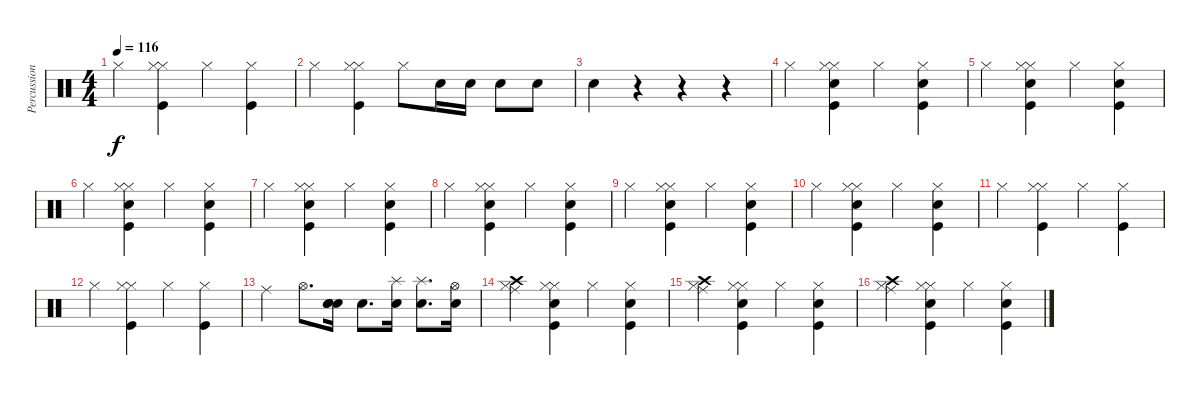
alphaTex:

\track ("Percussion ( Densmore)" "Percussion") {instrument percussion}
\staff {score}
\articulation defaults
\ts (4 4)
\tempo 116
\clef neutral
\ks c "Hi-Hat (closed)".4{dy f}
("Hi-Hat (closed)" "Hi-Hat (closed)" "Kick (hit)").4 "Hi-Hat (closed)".4 ("Hi-Hat (closed)" "Kick (hit)").4 |
"Hi-Hat (closed)".4 ("Hi-Hat (closed)" "Hi-Hat (closed)" "Kick (hit)").4 "Hi-Hat (closed)".8 "Snare (hit) 2".16 "Snare (hit) 2".16 "Snare (hit) 2".8 "Snare (hit) 2".8 |
"Snare (hit) 2".4 r.4 r.4 r.4 |
"Hi-Hat (closed)".4 ("Hi-Hat (closed)" "Hi-Hat (closed)" "Kick (hit)" "Snare (hit) 2").4 "Hi-Hat (closed)".4 ("Hi-Hat (closed)" "Snare (hit) 2" "Kick (hit)").4 |
"Hi-Hat (closed)".4 ("Hi-Hat (closed)" "Hi-Hat (closed)" "Kick (hit)" "Snare (hit) 2").4 "Hi-Hat (closed)".4 ("Hi-Hat (closed)" "Snare (hit) 2" "Kick (hit)").4 |
"Hi-Hat (closed)".4 ("Hi-Hat (closed)" "Hi-Hat (closed)" "Kick (hit)" "Snare (hit) 2").4 "Hi-Hat (closed)".4 ("Hi-Hat (closed)" "Snare (hit) 2" "Kick (hit)").4 |
"Hi-Hat (closed)".4 ("Hi-Hat (closed)" "Hi-Hat (closed)" "Kick (hit)" "Snare (hit) 2").4 "Hi-Hat (closed)".4 ("Hi-Hat (closed)" "Snare (hit) 2" "Kick (hit)").4 |
"Hi-Hat (closed)".4 ("Hi-Hat (closed)" "Hi-Hat (closed)" "Kick (hit)" "Snare (hit) 2").4 "Hi-Hat (closed)".4 ("Hi-Hat (closed)" "Snare (hit) 2" "Kick (hit)").4 |
"Hi-Hat (closed)".4 ("Hi-Hat (closed)" "Hi-Hat (closed)" "Kick (hit)" "Snare (hit) 2").4 "Hi-Hat (closed)".4 ("Hi-Hat (closed)" "Snare (hit) 2" "Kick (hit)").4 |
"Hi-Hat (closed)".4 ("Hi-Hat (closed)" "Hi-Hat (closed)" "Kick (hit)" "Snare (hit) 2").4 "Hi-Hat (closed)".4 ("Hi-Hat (closed)" "Snare (hit) 2" "Kick (hit)").4 |
"Hi-Hat (closed)".4 ("Hi-Hat (closed)" "Hi-Hat (closed)" "Kick (hit)").4 "Hi-Hat (closed)".4 ("Hi-Hat (closed)" "Kick (hit)").4 |
"Hi-Hat (closed)".4 ("Hi-Hat (closed)" "Hi-Hat (closed)" "Kick (hit)").4 "Hi-Hat (closed)".4 ("Hi-Hat (closed)" "Kick (hit)").4 |
"Ride (middle)".4 "Hi-Hat (open)".8{d} ("Snare (hit) 2" "Snare (hit) 2" "Snare (hit) 2").16 "Snare (hit) 2".8{d} ("Splash (hit)" "Snare (hit) 2").16 ("Splash (hit)" "Snare (hit) 2").8{d} ("Hi-Hat (open)" "Snare (hit) 2").16 |
("Hi-Hat (closed)" "Ride (middle)" "Crash high (hit)").4 ("Hi-Hat (closed)" "Hi-Hat (closed)" "Kick (hit)" "Snare (hit) 2").4 "Hi-Hat (closed)".4 ("Hi-Hat (closed)" "Snare (hit) 2" "Kick (hit)").4 |
("Hi-Hat (closed)" "Ride (middle)" "Crash high (hit)").4 ("Hi-Hat (closed)" "Hi-Hat (closed)" "Kick (hit)" "Snare (hit) 2").4 "Hi-Hat (closed)".4 ("Hi-Hat (closed)" "Snare (hit) 2" "Kick (hit)").4 |
("Hi-Hat (closed)" "Ride (middle)" "Crash high (hit)").4 ("Hi-Hat (closed)" "Hi-Hat (closed)" "Kick (hit)" "Snare (hit) 2").4 "Hi-Hat (closed)".4 ("Hi-Hat (closed)" "Snare (hit) 2" "Kick (hit)").4
